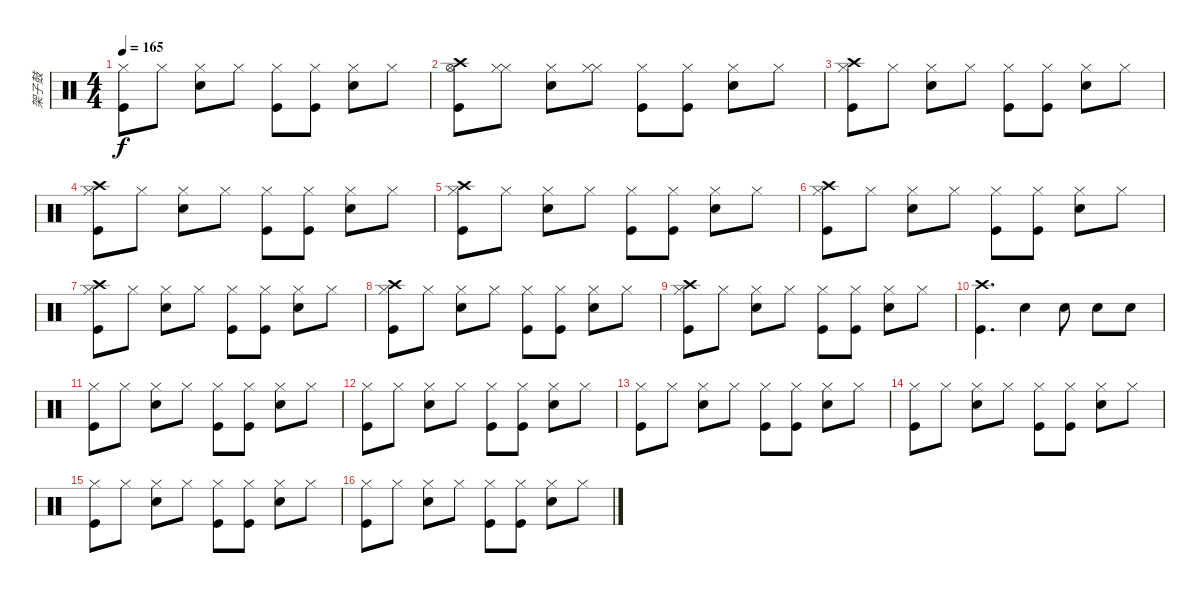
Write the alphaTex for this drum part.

\track ("架子鼓" "架子鼓") {instrument percussion}
\staff {score}
\articulation defaults
\ts (4 4)
\tempo 165
\clef neutral
\ks c
("Hi-Hat (closed)" "Kick (hit)").8{dy f} "Hi-Hat (closed)".8 ("Hi-Hat (closed)" "Snare (hit) 2").8 "Hi-Hat (closed)".8 ("Hi-Hat (closed)" "Kick (hit)").8 ("Hi-Hat (closed)" "Kick (hit)").8 ("Hi-Hat (closed)" "Snare (hit) 2").8 "Hi-Hat (closed)".8 |
("Hi-Hat (open)" "Kick (hit)" "Crash high (hit)").8 ("Hi-Hat (closed)" "Hi-Hat (closed)").8 ("Hi-Hat (closed)" "Snare (hit) 2").8 ("Hi-Hat (closed)" "Hi-Hat (closed)").8 ("Hi-Hat (closed)" "Kick (hit)").8 ("Hi-Hat (closed)" "Kick (hit)").8 ("Hi-Hat (closed)" "Snare (hit) 2").8 "Hi-Hat (closed)".8 |
("Hi-Hat (closed)" "Kick (hit)" "Crash high (hit)").8 "Hi-Hat (closed)".8 ("Hi-Hat (closed)" "Snare (hit) 2").8 "Hi-Hat (closed)".8 ("Hi-Hat (closed)" "Kick (hit)").8 ("Hi-Hat (closed)" "Kick (hit)").8 ("Hi-Hat (closed)" "Snare (hit) 2").8 "Hi-Hat (closed)".8 |
("Hi-Hat (closed)" "Kick (hit)" "Crash high (hit)").8 "Hi-Hat (closed)".8 ("Hi-Hat (closed)" "Snare (hit) 2").8 "Hi-Hat (closed)".8 ("Hi-Hat (closed)" "Kick (hit)").8 ("Hi-Hat (closed)" "Kick (hit)").8 ("Hi-Hat (closed)" "Snare (hit) 2").8 "Hi-Hat (closed)".8 |
("Hi-Hat (closed)" "Kick (hit)" "Crash high (hit)").8 "Hi-Hat (closed)".8 ("Hi-Hat (closed)" "Snare (hit) 2").8 "Hi-Hat (closed)".8 ("Hi-Hat (closed)" "Kick (hit)").8 ("Hi-Hat (closed)" "Kick (hit)").8 ("Hi-Hat (closed)" "Snare (hit) 2").8 "Hi-Hat (closed)".8 |
("Hi-Hat (closed)" "Kick (hit)" "Crash high (hit)").8 "Hi-Hat (closed)".8 ("Hi-Hat (closed)" "Snare (hit) 2").8 "Hi-Hat (closed)".8 ("Hi-Hat (closed)" "Kick (hit)").8 ("Hi-Hat (closed)" "Kick (hit)").8 ("Hi-Hat (closed)" "Snare (hit) 2").8 "Hi-Hat (closed)".8 |
("Hi-Hat (closed)" "Kick (hit)" "Crash high (hit)").8 "Hi-Hat (closed)".8 ("Hi-Hat (closed)" "Snare (hit) 2").8 "Hi-Hat (closed)".8 ("Hi-Hat (closed)" "Kick (hit)").8 ("Hi-Hat (closed)" "Kick (hit)").8 ("Hi-Hat (closed)" "Snare (hit) 2").8 "Hi-Hat (closed)".8 |
("Hi-Hat (closed)" "Kick (hit)" "Crash high (hit)").8 "Hi-Hat (closed)".8 ("Hi-Hat (closed)" "Snare (hit) 2").8 "Hi-Hat (closed)".8 ("Hi-Hat (closed)" "Kick (hit)").8 ("Hi-Hat (closed)" "Kick (hit)").8 ("Hi-Hat (closed)" "Snare (hit) 2").8 "Hi-Hat (closed)".8 |
("Hi-Hat (closed)" "Kick (hit)" "Crash high (hit)").8 "Hi-Hat (closed)".8 ("Hi-Hat (closed)" "Snare (hit) 2").8 "Hi-Hat (closed)".8 ("Hi-Hat (closed)" "Kick (hit)").8 ("Hi-Hat (closed)" "Kick (hit)").8 ("Hi-Hat (closed)" "Snare (hit) 2").8 "Hi-Hat (closed)".8 |
("Crash high (hit)" "Kick (hit)").4{d} "Snare (hit) 2".4 "Snare (hit) 2".8 "Snare (hit) 2".8 "Snare (hit) 2".8 |
("Hi-Hat (closed)" "Kick (hit)").8 "Hi-Hat (closed)".8 ("Hi-Hat (closed)" "Snare (hit) 2").8 "Hi-Hat (closed)".8 ("Hi-Hat (closed)" "Kick (hit)").8 ("Hi-Hat (closed)" "Kick (hit)").8 ("Hi-Hat (closed)" "Snare (hit) 2").8 "Hi-Hat (closed)".8 |
("Hi-Hat (closed)" "Kick (hit)").8 "Hi-Hat (closed)".8 ("Hi-Hat (closed)" "Snare (hit) 2").8 "Hi-Hat (closed)".8 ("Hi-Hat (closed)" "Kick (hit)").8 ("Hi-Hat (closed)" "Kick (hit)").8 ("Hi-Hat (closed)" "Snare (hit) 2").8 "Hi-Hat (closed)".8 |
("Hi-Hat (closed)" "Kick (hit)").8 "Hi-Hat (closed)".8 ("Hi-Hat (closed)" "Snare (hit) 2").8 "Hi-Hat (closed)".8 ("Hi-Hat (closed)" "Kick (hit)").8 ("Hi-Hat (closed)" "Kick (hit)").8 ("Hi-Hat (closed)" "Snare (hit) 2").8 "Hi-Hat (closed)".8 |
("Hi-Hat (closed)" "Kick (hit)").8 "Hi-Hat (closed)".8 ("Hi-Hat (closed)" "Snare (hit) 2").8 "Hi-Hat (closed)".8 ("Hi-Hat (closed)" "Kick (hit)").8 ("Hi-Hat (closed)" "Kick (hit)").8 ("Hi-Hat (closed)" "Snare (hit) 2").8 "Hi-Hat (closed)".8 |
("Hi-Hat (closed)" "Kick (hit)").8 "Hi-Hat (closed)".8 ("Hi-Hat (closed)" "Snare (hit) 2").8 "Hi-Hat (closed)".8 ("Hi-Hat (closed)" "Kick (hit)").8 ("Hi-Hat (closed)" "Kick (hit)").8 ("Hi-Hat (closed)" "Snare (hit) 2").8 "Hi-Hat (closed)".8 |
("Hi-Hat (closed)" "Kick (hit)").8 "Hi-Hat (closed)".8 ("Hi-Hat (closed)" "Snare (hit) 2").8 "Hi-Hat (closed)".8 ("Hi-Hat (closed)" "Kick (hit)").8 ("Hi-Hat (closed)" "Kick (hit)").8 ("Hi-Hat (closed)" "Snare (hit) 2").8 "Hi-Hat (closed)".8
